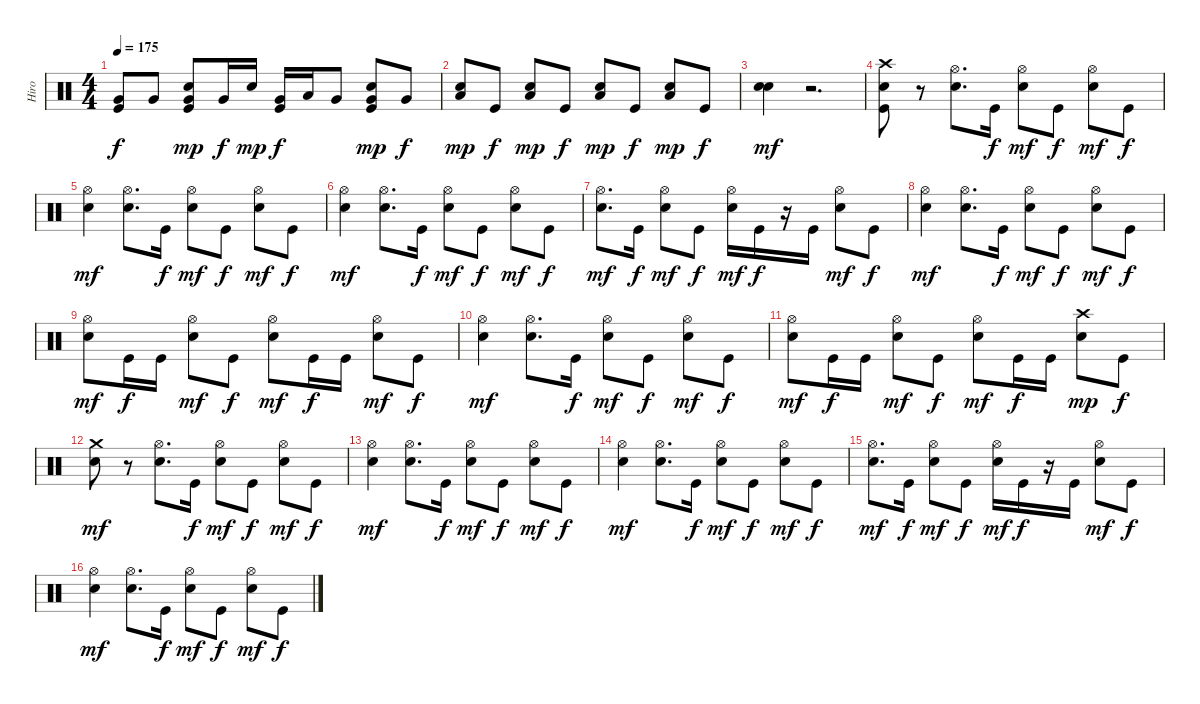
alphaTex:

\track ("Hiro" "Hiro") {instrument percussion}
\staff {score}
\articulation defaults
\ts (4 4)
\tempo 175
\clef neutral
\ks c
("Kick (hit)" "Very Low Tom (hit)").8{dy f} "Very Low Tom (hit)".8 ("Very Low Tom (hit)" "Electric Snare (hit)" "Kick (hit)").8{dy mp} "Very Low Tom (hit)".16{dy f} "Electric Snare (hit)".16{dy mp} ("Very Low Tom (hit)" "Kick (hit)").16{dy f} "Low Tom (hit)".16 "Very Low Tom (hit)".8 ("Very Low Tom (hit)" "Electric Snare (hit)" "Kick (hit)").8{dy mp} "Very Low Tom (hit)".8{dy f} |
("Low Floor Tom (hit)" "Electric Snare (hit)").8{dy mp} "Kick (hit)".8{dy f} ("Low Floor Tom (hit)" "Electric Snare (hit)").8{dy mp} "Kick (hit)".8{dy f} ("Low Floor Tom (hit)" "Electric Snare (hit)").8{dy mp} "Kick (hit)".8{dy f} ("Low Floor Tom (hit)" "Electric Snare (hit)").8{dy mp} "Kick (hit)".8{dy f} |
("Electric Snare (hit)" "Electric Snare (hit)").4{dy mf} r.2{d} |
("Crash high (hit)" "Kick (hit)" "Electric Snare (hit)").8 r.8 ("Electric Snare (hit)" "Hi-Hat (open)").8{d} "Kick (hit)".16{dy f} ("Electric Snare (hit)" "Hi-Hat (open)").8{dy mf} "Kick (hit)".8{dy f} ("Electric Snare (hit)" "Hi-Hat (open)").8{dy mf} "Kick (hit)".8{dy f} |
("Electric Snare (hit)" "Hi-Hat (open)").4{dy mf} ("Electric Snare (hit)" "Hi-Hat (open)").8{d} "Kick (hit)".16{dy f} ("Electric Snare (hit)" "Hi-Hat (open)").8{dy mf} "Kick (hit)".8{dy f} ("Electric Snare (hit)" "Hi-Hat (open)").8{dy mf} "Kick (hit)".8{dy f} |
("Electric Snare (hit)" "Hi-Hat (open)").4{dy mf} ("Electric Snare (hit)" "Hi-Hat (open)").8{d} "Kick (hit)".16{dy f} ("Electric Snare (hit)" "Hi-Hat (open)").8{dy mf} "Kick (hit)".8{dy f} ("Electric Snare (hit)" "Hi-Hat (open)").8{dy mf} "Kick (hit)".8{dy f} |
("Electric Snare (hit)" "Hi-Hat (open)").8{d dy mf} "Kick (hit)".16{dy f} ("Electric Snare (hit)" "Hi-Hat (open)").8{dy mf} "Kick (hit)".8{dy f} ("Electric Snare (hit)" "Hi-Hat (open)").16{dy mf} "Kick (hit)".16{dy f} r.16 "Kick (hit)".16 ("Electric Snare (hit)" "Hi-Hat (open)").8{dy mf} "Kick (hit)".8{dy f} |
("Electric Snare (hit)" "Hi-Hat (open)").4{dy mf} ("Electric Snare (hit)" "Hi-Hat (open)").8{d} "Kick (hit)".16{dy f} ("Electric Snare (hit)" "Hi-Hat (open)").8{dy mf} "Kick (hit)".8{dy f} ("Electric Snare (hit)" "Hi-Hat (open)").8{dy mf} "Kick (hit)".8{dy f} |
("Electric Snare (hit)" "Hi-Hat (open)").8{dy mf} "Kick (hit)".16{dy f} "Kick (hit)".16 ("Electric Snare (hit)" "Hi-Hat (open)").8{dy mf} "Kick (hit)".8{dy f} ("Electric Snare (hit)" "Hi-Hat (open)").8{dy mf} "Kick (hit)".16{dy f} "Kick (hit)".16 ("Electric Snare (hit)" "Hi-Hat (open)").8{dy mf} "Kick (hit)".8{dy f} |
("Electric Snare (hit)" "Hi-Hat (open)").4{dy mf} ("Electric Snare (hit)" "Hi-Hat (open)").8{d} "Kick (hit)".16{dy f} ("Electric Snare (hit)" "Hi-Hat (open)").8{dy mf} "Kick (hit)".8{dy f} ("Electric Snare (hit)" "Hi-Hat (open)").8{dy mf} "Kick (hit)".8{dy f} |
("Electric Snare (hit)" "Hi-Hat (open)").8{dy mf} "Kick (hit)".16{dy f} "Kick (hit)".16 ("Electric Snare (hit)" "Hi-Hat (open)").8{dy mf} "Kick (hit)".8{dy f} ("Electric Snare (hit)" "Hi-Hat (open)").8{dy mf} "Kick (hit)".16{dy f} "Kick (hit)".16 ("Crash high (hit)" "Electric Snare (hit)").8{dy mp} "Kick (hit)".8{dy f} |
("Crash medium (hit)" "Electric Snare (hit)").8{dy mf} r.8 ("Electric Snare (hit)" "Hi-Hat (open)").8{d} "Kick (hit)".16{dy f} ("Electric Snare (hit)" "Hi-Hat (open)").8{dy mf} "Kick (hit)".8{dy f} ("Electric Snare (hit)" "Hi-Hat (open)").8{dy mf} "Kick (hit)".8{dy f} |
("Electric Snare (hit)" "Hi-Hat (open)").4{dy mf} ("Electric Snare (hit)" "Hi-Hat (open)").8{d} "Kick (hit)".16{dy f} ("Electric Snare (hit)" "Hi-Hat (open)").8{dy mf} "Kick (hit)".8{dy f} ("Electric Snare (hit)" "Hi-Hat (open)").8{dy mf} "Kick (hit)".8{dy f} |
("Electric Snare (hit)" "Hi-Hat (open)").4{dy mf} ("Electric Snare (hit)" "Hi-Hat (open)").8{d} "Kick (hit)".16{dy f} ("Electric Snare (hit)" "Hi-Hat (open)").8{dy mf} "Kick (hit)".8{dy f} ("Electric Snare (hit)" "Hi-Hat (open)").8{dy mf} "Kick (hit)".8{dy f} |
("Electric Snare (hit)" "Hi-Hat (open)").8{d dy mf} "Kick (hit)".16{dy f} ("Electric Snare (hit)" "Hi-Hat (open)").8{dy mf} "Kick (hit)".8{dy f} ("Electric Snare (hit)" "Hi-Hat (open)").16{dy mf} "Kick (hit)".16{dy f} r.16 "Kick (hit)".16 ("Electric Snare (hit)" "Hi-Hat (open)").8{dy mf} "Kick (hit)".8{dy f} |
("Electric Snare (hit)" "Hi-Hat (open)").4{dy mf} ("Electric Snare (hit)" "Hi-Hat (open)").8{d} "Kick (hit)".16{dy f} ("Electric Snare (hit)" "Hi-Hat (open)").8{dy mf} "Kick (hit)".8{dy f} ("Electric Snare (hit)" "Hi-Hat (open)").8{dy mf} "Kick (hit)".8{dy f}
